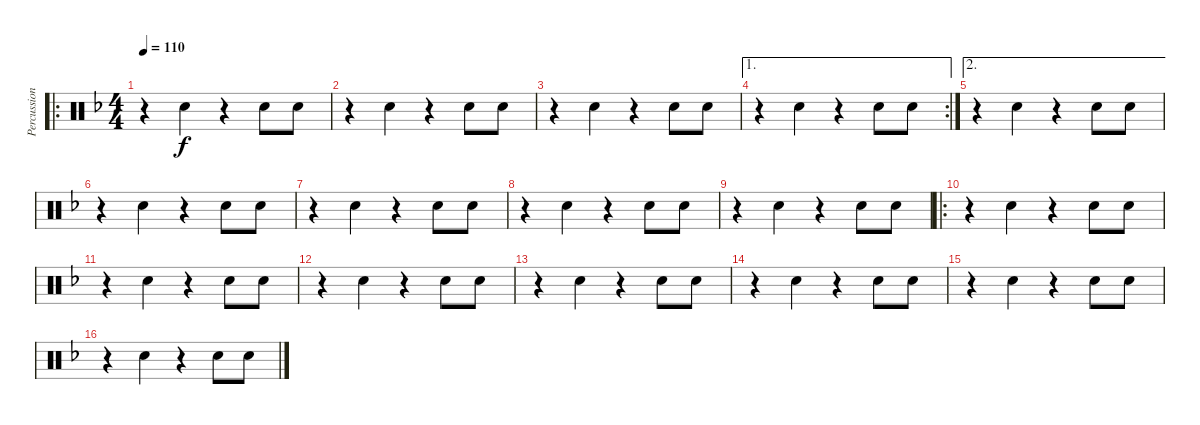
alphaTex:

\track ("Percussion" "Percussion") {instrument percussion}
\staff {score}
\articulation defaults
\ro
\ts (4 4)
\tempo 110
\clef neutral
\ks dminor
r.4{dy f} "Hand Clap (hit)".4 r.4 "Hand Clap (hit)".8 "Hand Clap (hit)".8 |
r.4 "Hand Clap (hit)".4 r.4 "Hand Clap (hit)".8 "Hand Clap (hit)".8 |
r.4 "Hand Clap (hit)".4 r.4 "Hand Clap (hit)".8 "Hand Clap (hit)".8 |
\ae 1
\rc 2
r.4 "Hand Clap (hit)".4 r.4 "Hand Clap (hit)".8 "Hand Clap (hit)".8 |
\ae 2
r.4 "Hand Clap (hit)".4 r.4 "Hand Clap (hit)".8 "Hand Clap (hit)".8 |
r.4 "Hand Clap (hit)".4 r.4 "Hand Clap (hit)".8 "Hand Clap (hit)".8 |
r.4 "Hand Clap (hit)".4 r.4 "Hand Clap (hit)".8 "Hand Clap (hit)".8 |
r.4 "Hand Clap (hit)".4 r.4 "Hand Clap (hit)".8 "Hand Clap (hit)".8 |
r.4 "Hand Clap (hit)".4 r.4 "Hand Clap (hit)".8 "Hand Clap (hit)".8 |
\ro
r.4 "Hand Clap (hit)".4 r.4 "Hand Clap (hit)".8 "Hand Clap (hit)".8 |
r.4 "Hand Clap (hit)".4 r.4 "Hand Clap (hit)".8 "Hand Clap (hit)".8 |
r.4 "Hand Clap (hit)".4 r.4 "Hand Clap (hit)".8 "Hand Clap (hit)".8 |
r.4 "Hand Clap (hit)".4 r.4 "Hand Clap (hit)".8 "Hand Clap (hit)".8 |
r.4 "Hand Clap (hit)".4 r.4 "Hand Clap (hit)".8 "Hand Clap (hit)".8 |
r.4 "Hand Clap (hit)".4 r.4 "Hand Clap (hit)".8 "Hand Clap (hit)".8 |
r.4 "Hand Clap (hit)".4 r.4 "Hand Clap (hit)".8 "Hand Clap (hit)".8
